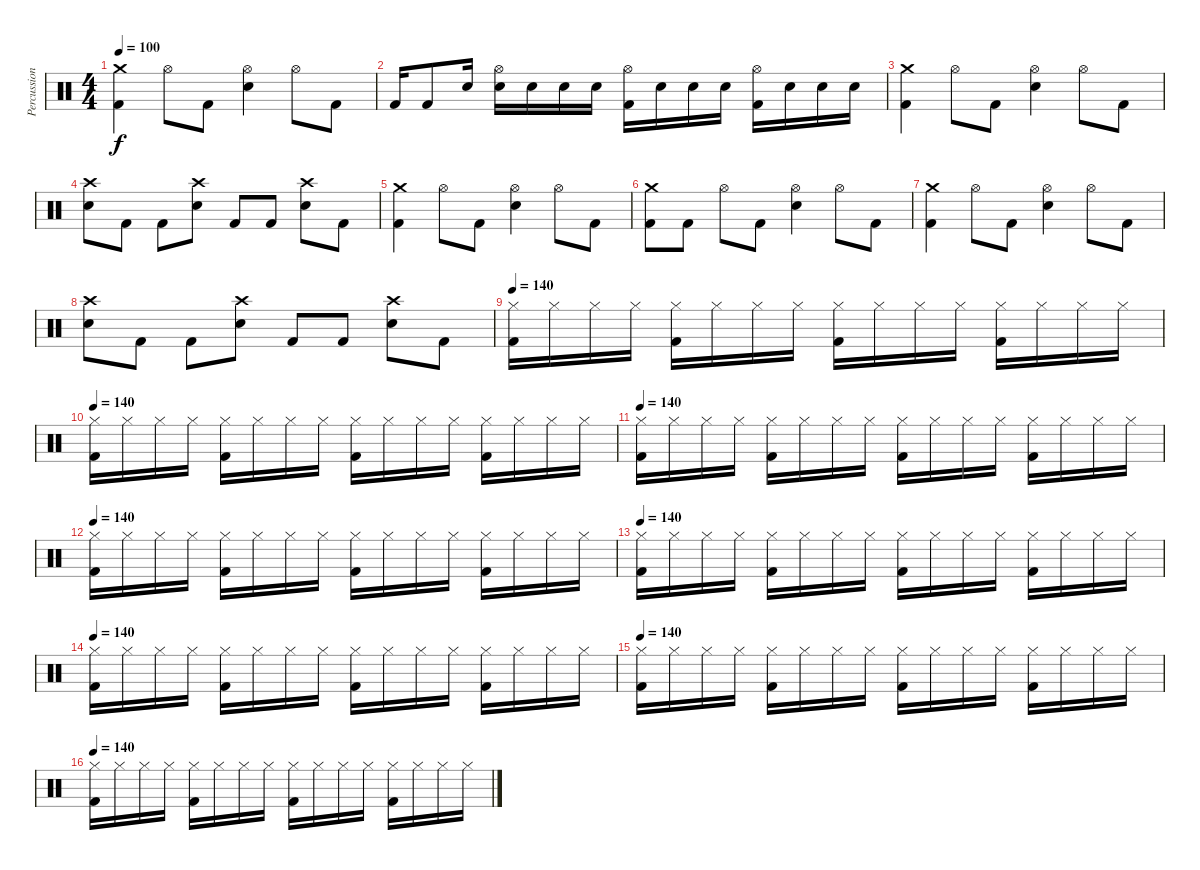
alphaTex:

\track ("Percussion" "Percussion") {instrument percussion}
\staff {score}
\articulation defaults
\ts (4 4)
\tempo 100
\clef neutral
\ks c
("Crash medium (hit)" "Kick (hit) 2").4{dy f} "Hi-Hat (open)".8 "Kick (hit) 2".8 ("Hi-Hat (open)" "Electric Snare (hit)").4 "Hi-Hat (open)".8 "Kick (hit) 2".8 |
"Kick (hit) 2".16 "Kick (hit) 2".8 "Electric Snare (hit)".16 ("Hi-Hat (open)" "Electric Snare (hit)").16 "Electric Snare (hit)".16 "Electric Snare (hit)".16 "Electric Snare (hit)".16 ("Hi-Hat (open)" "Kick (hit) 2").16 "Electric Snare (hit)".16 "Electric Snare (hit)".16 "Electric Snare (hit)".16 ("Hi-Hat (open)" "Kick (hit) 2").16 "Electric Snare (hit)".16 "Electric Snare (hit)".16 "Electric Snare (hit)".16 |
("Crash medium (hit)" "Kick (hit) 2").4 "Hi-Hat (open)".8 "Kick (hit) 2".8 ("Hi-Hat (open)" "Electric Snare (hit)").4 "Hi-Hat (open)".8 "Kick (hit) 2".8 |
("Crash high (hit)" "Electric Snare (hit)").8 "Kick (hit) 2".8 "Kick (hit) 2".8 ("Crash high (hit)" "Electric Snare (hit)").8 "Kick (hit) 2".8 "Kick (hit) 2".8 ("Crash high (hit)" "Electric Snare (hit)").8 "Kick (hit) 2".8 |
("Crash medium (hit)" "Kick (hit) 2").4 "Hi-Hat (open)".8 "Kick (hit) 2".8 ("Hi-Hat (open)" "Electric Snare (hit)").4 "Hi-Hat (open)".8 "Kick (hit) 2".8 |
("Crash medium (hit)" "Kick (hit) 2").8 "Kick (hit) 2".8 "Hi-Hat (open)".8 "Kick (hit) 2".8 ("Hi-Hat (open)" "Electric Snare (hit)").4 "Hi-Hat (open)".8 "Kick (hit) 2".8 |
("Crash medium (hit)" "Kick (hit) 2").4 "Hi-Hat (open)".8 "Kick (hit) 2".8 ("Hi-Hat (open)" "Electric Snare (hit)").4 "Hi-Hat (open)".8 "Kick (hit) 2".8 |
("Crash high (hit)" "Electric Snare (hit)").8 "Kick (hit) 2".8 "Kick (hit) 2".8 ("Crash high (hit)" "Electric Snare (hit)").8 "Kick (hit) 2".8 "Kick (hit) 2".8 ("Crash high (hit)" "Electric Snare (hit)").8 "Kick (hit) 2".8 |
\tempo 140
("Hi-Hat (closed)" "Kick (hit) 2").16 "Hi-Hat (closed)".16 "Hi-Hat (closed)".16 "Hi-Hat (closed)".16 ("Hi-Hat (closed)" "Kick (hit) 2").16 "Hi-Hat (closed)".16 "Hi-Hat (closed)".16 "Hi-Hat (closed)".16 ("Hi-Hat (closed)" "Kick (hit) 2").16 "Hi-Hat (closed)".16 "Hi-Hat (closed)".16 "Hi-Hat (closed)".16 ("Hi-Hat (closed)" "Kick (hit) 2").16 "Hi-Hat (closed)".16 "Hi-Hat (closed)".16 "Hi-Hat (closed)".16 |
\tempo 140
("Hi-Hat (closed)" "Kick (hit) 2").16 "Hi-Hat (closed)".16 "Hi-Hat (closed)".16 "Hi-Hat (closed)".16 ("Hi-Hat (closed)" "Kick (hit) 2").16 "Hi-Hat (closed)".16 "Hi-Hat (closed)".16 "Hi-Hat (closed)".16 ("Hi-Hat (closed)" "Kick (hit) 2").16 "Hi-Hat (closed)".16 "Hi-Hat (closed)".16 "Hi-Hat (closed)".16 ("Hi-Hat (closed)" "Kick (hit) 2").16 "Hi-Hat (closed)".16 "Hi-Hat (closed)".16 "Hi-Hat (closed)".16 |
\tempo 140
("Hi-Hat (closed)" "Kick (hit) 2").16 "Hi-Hat (closed)".16 "Hi-Hat (closed)".16 "Hi-Hat (closed)".16 ("Hi-Hat (closed)" "Kick (hit) 2").16 "Hi-Hat (closed)".16 "Hi-Hat (closed)".16 "Hi-Hat (closed)".16 ("Hi-Hat (closed)" "Kick (hit) 2").16 "Hi-Hat (closed)".16 "Hi-Hat (closed)".16 "Hi-Hat (closed)".16 ("Hi-Hat (closed)" "Kick (hit) 2").16 "Hi-Hat (closed)".16 "Hi-Hat (closed)".16 "Hi-Hat (closed)".16 |
\tempo 140
("Hi-Hat (closed)" "Kick (hit) 2").16 "Hi-Hat (closed)".16 "Hi-Hat (closed)".16 "Hi-Hat (closed)".16 ("Hi-Hat (closed)" "Kick (hit) 2").16 "Hi-Hat (closed)".16 "Hi-Hat (closed)".16 "Hi-Hat (closed)".16 ("Hi-Hat (closed)" "Kick (hit) 2").16 "Hi-Hat (closed)".16 "Hi-Hat (closed)".16 "Hi-Hat (closed)".16 ("Hi-Hat (closed)" "Kick (hit) 2").16 "Hi-Hat (closed)".16 "Hi-Hat (closed)".16 "Hi-Hat (closed)".16 |
\tempo 140
("Hi-Hat (closed)" "Kick (hit) 2").16 "Hi-Hat (closed)".16 "Hi-Hat (closed)".16 "Hi-Hat (closed)".16 ("Hi-Hat (closed)" "Kick (hit) 2").16 "Hi-Hat (closed)".16 "Hi-Hat (closed)".16 "Hi-Hat (closed)".16 ("Hi-Hat (closed)" "Kick (hit) 2").16 "Hi-Hat (closed)".16 "Hi-Hat (closed)".16 "Hi-Hat (closed)".16 ("Hi-Hat (closed)" "Kick (hit) 2").16 "Hi-Hat (closed)".16 "Hi-Hat (closed)".16 "Hi-Hat (closed)".16 |
\tempo 140
("Hi-Hat (closed)" "Kick (hit) 2").16 "Hi-Hat (closed)".16 "Hi-Hat (closed)".16 "Hi-Hat (closed)".16 ("Hi-Hat (closed)" "Kick (hit) 2").16 "Hi-Hat (closed)".16 "Hi-Hat (closed)".16 "Hi-Hat (closed)".16 ("Hi-Hat (closed)" "Kick (hit) 2").16 "Hi-Hat (closed)".16 "Hi-Hat (closed)".16 "Hi-Hat (closed)".16 ("Hi-Hat (closed)" "Kick (hit) 2").16 "Hi-Hat (closed)".16 "Hi-Hat (closed)".16 "Hi-Hat (closed)".16 |
\tempo 140
("Hi-Hat (closed)" "Kick (hit) 2").16 "Hi-Hat (closed)".16 "Hi-Hat (closed)".16 "Hi-Hat (closed)".16 ("Hi-Hat (closed)" "Kick (hit) 2").16 "Hi-Hat (closed)".16 "Hi-Hat (closed)".16 "Hi-Hat (closed)".16 ("Hi-Hat (closed)" "Kick (hit) 2").16 "Hi-Hat (closed)".16 "Hi-Hat (closed)".16 "Hi-Hat (closed)".16 ("Hi-Hat (closed)" "Kick (hit) 2").16 "Hi-Hat (closed)".16 "Hi-Hat (closed)".16 "Hi-Hat (closed)".16 |
\tempo 140
("Hi-Hat (closed)" "Kick (hit) 2").16 "Hi-Hat (closed)".16 "Hi-Hat (closed)".16 "Hi-Hat (closed)".16 ("Hi-Hat (closed)" "Kick (hit) 2").16 "Hi-Hat (closed)".16 "Hi-Hat (closed)".16 "Hi-Hat (closed)".16 ("Hi-Hat (closed)" "Kick (hit) 2").16 "Hi-Hat (closed)".16 "Hi-Hat (closed)".16 "Hi-Hat (closed)".16 ("Hi-Hat (closed)" "Kick (hit) 2").16 "Hi-Hat (closed)".16 "Hi-Hat (closed)".16 "Hi-Hat (closed)".16
